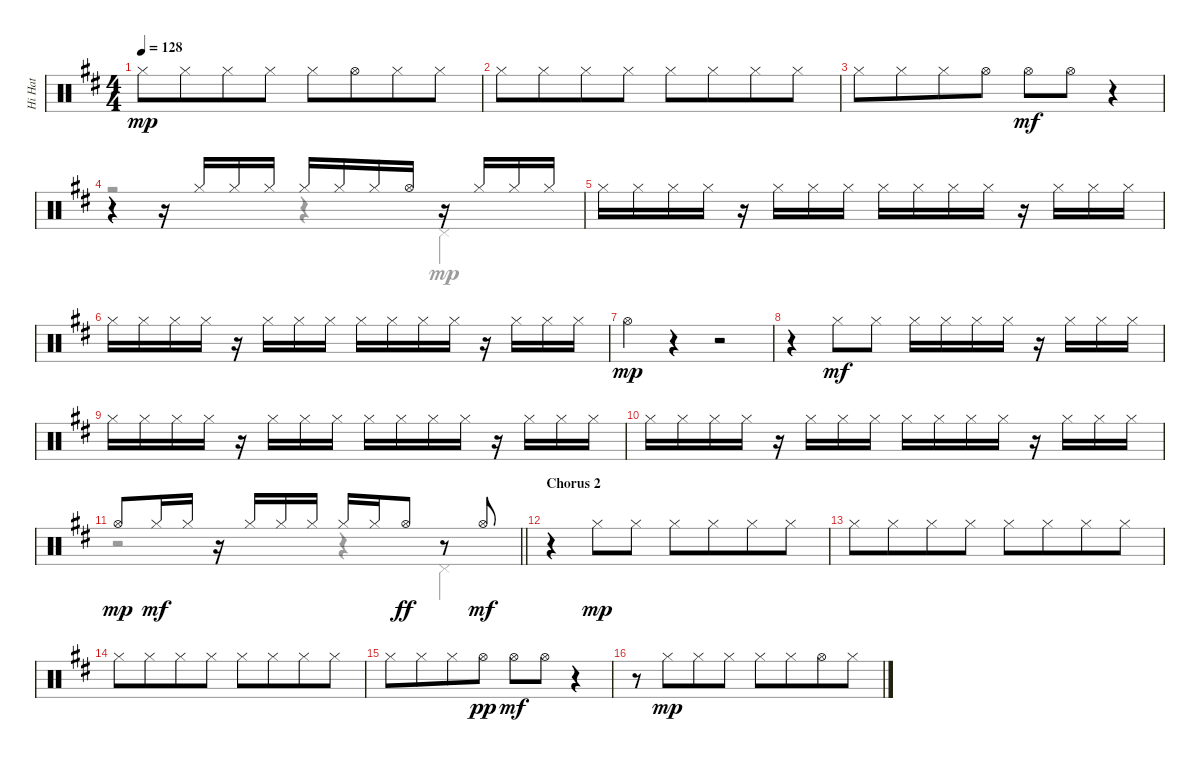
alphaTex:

\track ("Hi Hat" "Hi Hat") {instrument percussion}
\staff {score}
\articulation defaults
\voice
\ts (4 4)
\tempo 128
\clef neutral
\ks bminor "Hi-Hat (closed)".8{dy mp} "Hi-Hat (closed)".8{beam merge} "Hi-Hat (closed)".8 "Hi-Hat (closed)".8 "Hi-Hat (closed)".8 "Hi-Hat (open)".8{beam merge} "Hi-Hat (closed)".8 "Hi-Hat (closed)".8
|
"Hi-Hat (closed)".8 "Hi-Hat (closed)".8{beam merge} "Hi-Hat (closed)".8 "Hi-Hat (closed)".8 "Hi-Hat (closed)".8 "Hi-Hat (closed)".8{beam merge} "Hi-Hat (closed)".8 "Hi-Hat (closed)".8 |
"Hi-Hat (closed)".8 "Hi-Hat (closed)".8{beam merge} "Hi-Hat (closed)".8 "Hi-Hat (open)".8 "Hi-Hat (open)".8{dy mf} "Hi-Hat (open)".8 r.4 |
r.4 r.16 "Hi-Hat (closed)".16 "Hi-Hat (closed)".16 "Hi-Hat (closed)".16 "Hi-Hat (closed)".16 "Hi-Hat (closed)".16 "Hi-Hat (closed)".16 "Hi-Hat (open)".16 r.16 "Hi-Hat (closed)".16 "Hi-Hat (closed)".16 "Hi-Hat (closed)".16 |
"Hi-Hat (closed)".16 "Hi-Hat (closed)".16 "Hi-Hat (closed)".16 "Hi-Hat (closed)".16 r.16 "Hi-Hat (closed)".16 "Hi-Hat (closed)".16 "Hi-Hat (closed)".16 "Hi-Hat (closed)".16 "Hi-Hat (closed)".16 "Hi-Hat (closed)".16 "Hi-Hat (closed)".16 r.16 "Hi-Hat (closed)".16 "Hi-Hat (closed)".16 "Hi-Hat (closed)".16 |
"Hi-Hat (closed)".16 "Hi-Hat (closed)".16 "Hi-Hat (closed)".16 "Hi-Hat (closed)".16 r.16 "Hi-Hat (closed)".16 "Hi-Hat (closed)".16 "Hi-Hat (closed)".16 "Hi-Hat (closed)".16 "Hi-Hat (closed)".16 "Hi-Hat (closed)".16 "Hi-Hat (closed)".16 r.16 "Hi-Hat (closed)".16 "Hi-Hat (closed)".16 "Hi-Hat (closed)".16 |
"Hi-Hat (open)".4{dy mp} r.4 r.2 |
r.4 "Hi-Hat (closed)".8{dy mf} "Hi-Hat (closed)".8 "Hi-Hat (closed)".16 "Hi-Hat (closed)".16 "Hi-Hat (closed)".16 "Hi-Hat (closed)".16 r.16 "Hi-Hat (closed)".16 "Hi-Hat (closed)".16 "Hi-Hat (closed)".16 |
"Hi-Hat (closed)".16 "Hi-Hat (closed)".16 "Hi-Hat (closed)".16 "Hi-Hat (closed)".16 r.16 "Hi-Hat (closed)".16 "Hi-Hat (closed)".16 "Hi-Hat (closed)".16 "Hi-Hat (closed)".16 "Hi-Hat (closed)".16 "Hi-Hat (closed)".16 "Hi-Hat (closed)".16 r.16 "Hi-Hat (closed)".16 "Hi-Hat (closed)".16 "Hi-Hat (closed)".16 |
"Hi-Hat (closed)".16 "Hi-Hat (closed)".16 "Hi-Hat (closed)".16 "Hi-Hat (closed)".16 r.16 "Hi-Hat (closed)".16 "Hi-Hat (closed)".16 "Hi-Hat (closed)".16 "Hi-Hat (closed)".16 "Hi-Hat (closed)".16 "Hi-Hat (closed)".16 "Hi-Hat (closed)".16 r.16 "Hi-Hat (closed)".16 "Hi-Hat (closed)".16 "Hi-Hat (closed)".16 |
\barLineRight lightlight "Hi-Hat (open)".8{dy mp} "Hi-Hat (closed)".16{dy mf} "Hi-Hat (closed)".16
r.16 "Hi-Hat (closed)".16 "Hi-Hat (closed)".16 "Hi-Hat (closed)".16 "Hi-Hat (closed)".16 "Hi-Hat (closed)".16 "Hi-Hat (open)".8{dy ff} r.8 "Hi-Hat (open)".8{dy mf} |
\section ("" "Chorus 2")
r.4 "Hi-Hat (closed)".8{dy mp} "Hi-Hat (closed)".8 "Hi-Hat (closed)".8 "Hi-Hat (closed)".8{beam merge} "Hi-Hat (closed)".8 "Hi-Hat (closed)".8 |
"Hi-Hat (closed)".8 "Hi-Hat (closed)".8{beam merge} "Hi-Hat (closed)".8 "Hi-Hat (closed)".8 "Hi-Hat (closed)".8 "Hi-Hat (closed)".8{beam merge} "Hi-Hat (closed)".8 "Hi-Hat (closed)".8 |
"Hi-Hat (closed)".8 "Hi-Hat (closed)".8{beam merge} "Hi-Hat (closed)".8 "Hi-Hat (closed)".8 "Hi-Hat (closed)".8 "Hi-Hat (closed)".8{beam merge} "Hi-Hat (closed)".8 "Hi-Hat (closed)".8 |
"Hi-Hat (closed)".8 "Hi-Hat (closed)".8{beam merge} "Hi-Hat (closed)".8 "Hi-Hat (open)".8{dy pp} "Hi-Hat (open)".8{dy mf} "Hi-Hat (open)".8 r.4 |
r.8 "Hi-Hat (closed)".8{dy mp beam merge} "Hi-Hat (closed)".8 "Hi-Hat (closed)".8 "Hi-Hat (closed)".8 "Hi-Hat (closed)".8{beam merge} "Hi-Hat (open)".8 "Hi-Hat (closed)".8
\voice
\clef neutral
\ottava regular
\simile none
\ks bminor
|
|
|
r.2 r.4 "Pedal Hi-Hat (hit)".4 |
|
|
|
|
|
|
\barLineRight lightlight
r.2 r.4 "Pedal Hi-Hat (hit)".4 |
|
|
|
|
